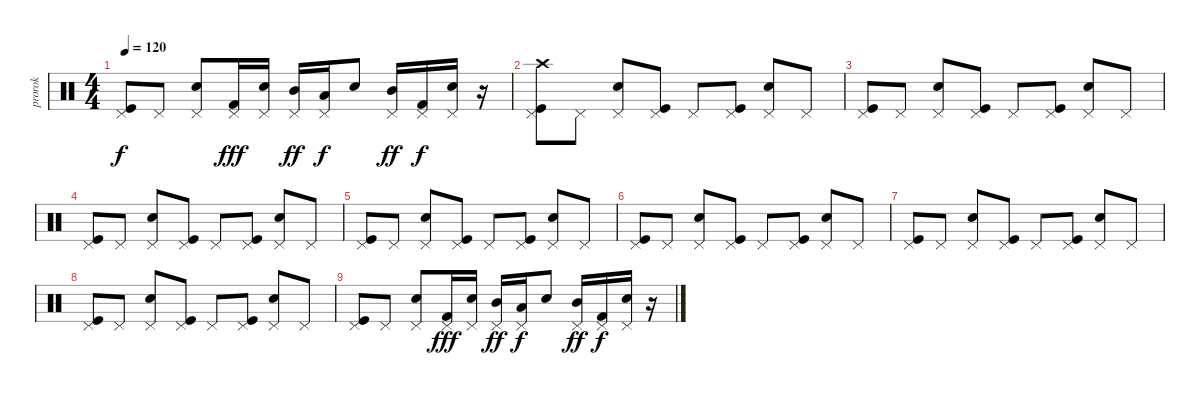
\track ("prorok" "prorok") {instrument percussion}
\staff {score}
\articulation defaults
\ts (4 4)
\tempo 120
\clef neutral
\ks c
("Kick (hit)" "Pedal Hi-Hat (hit)").8{dy f} "Pedal Hi-Hat (hit)".8 ("Electric Snare (hit)" "Pedal Hi-Hat (hit)").8 ("Kick (hit) 2" "Pedal Hi-Hat (hit)").16{dy fff} ("Electric Snare (hit)" "Pedal Hi-Hat (hit)").16 ("Mid Tom (hit)" "Pedal Hi-Hat (hit)").16{dy ff} ("Low Tom (hit)" "Pedal Hi-Hat (hit)").16{dy f} "Electric Snare (hit)".8 ("Mid Tom (hit)" "Pedal Hi-Hat (hit)").16{dy ff} ("Kick (hit) 2" "Pedal Hi-Hat (hit)").16{dy f} ("Electric Snare (hit)" "Pedal Hi-Hat (hit)").16 r.16 |
("Kick (hit)" "Pedal Hi-Hat (hit)" "Crash high (hit)").8 "Pedal Hi-Hat (hit)".8 ("Electric Snare (hit)" "Pedal Hi-Hat (hit)").8 ("Kick (hit)" "Pedal Hi-Hat (hit)").8 "Pedal Hi-Hat (hit)".8 ("Kick (hit)" "Pedal Hi-Hat (hit)").8 ("Electric Snare (hit)" "Pedal Hi-Hat (hit)").8 "Pedal Hi-Hat (hit)".8 |
("Kick (hit)" "Pedal Hi-Hat (hit)").8 "Pedal Hi-Hat (hit)".8 ("Electric Snare (hit)" "Pedal Hi-Hat (hit)").8 ("Kick (hit)" "Pedal Hi-Hat (hit)").8 "Pedal Hi-Hat (hit)".8 ("Kick (hit)" "Pedal Hi-Hat (hit)").8 ("Electric Snare (hit)" "Pedal Hi-Hat (hit)").8 "Pedal Hi-Hat (hit)".8 |
("Kick (hit)" "Pedal Hi-Hat (hit)").8 "Pedal Hi-Hat (hit)".8 ("Electric Snare (hit)" "Pedal Hi-Hat (hit)").8 ("Kick (hit)" "Pedal Hi-Hat (hit)").8 "Pedal Hi-Hat (hit)".8 ("Kick (hit)" "Pedal Hi-Hat (hit)").8 ("Electric Snare (hit)" "Pedal Hi-Hat (hit)").8 "Pedal Hi-Hat (hit)".8 |
("Kick (hit)" "Pedal Hi-Hat (hit)").8 "Pedal Hi-Hat (hit)".8 ("Electric Snare (hit)" "Pedal Hi-Hat (hit)").8 ("Kick (hit)" "Pedal Hi-Hat (hit)").8 "Pedal Hi-Hat (hit)".8 ("Kick (hit)" "Pedal Hi-Hat (hit)").8 ("Electric Snare (hit)" "Pedal Hi-Hat (hit)").8 "Pedal Hi-Hat (hit)".8 |
("Kick (hit)" "Pedal Hi-Hat (hit)").8 "Pedal Hi-Hat (hit)".8 ("Electric Snare (hit)" "Pedal Hi-Hat (hit)").8 ("Kick (hit)" "Pedal Hi-Hat (hit)").8 "Pedal Hi-Hat (hit)".8 ("Kick (hit)" "Pedal Hi-Hat (hit)").8 ("Electric Snare (hit)" "Pedal Hi-Hat (hit)").8 "Pedal Hi-Hat (hit)".8 |
("Kick (hit)" "Pedal Hi-Hat (hit)").8 "Pedal Hi-Hat (hit)".8 ("Electric Snare (hit)" "Pedal Hi-Hat (hit)").8 ("Kick (hit)" "Pedal Hi-Hat (hit)").8 "Pedal Hi-Hat (hit)".8 ("Kick (hit)" "Pedal Hi-Hat (hit)").8 ("Electric Snare (hit)" "Pedal Hi-Hat (hit)").8 "Pedal Hi-Hat (hit)".8 |
("Kick (hit)" "Pedal Hi-Hat (hit)").8 "Pedal Hi-Hat (hit)".8 ("Electric Snare (hit)" "Pedal Hi-Hat (hit)").8 ("Kick (hit)" "Pedal Hi-Hat (hit)").8 "Pedal Hi-Hat (hit)".8 ("Kick (hit)" "Pedal Hi-Hat (hit)").8 ("Electric Snare (hit)" "Pedal Hi-Hat (hit)").8 "Pedal Hi-Hat (hit)".8 |
("Kick (hit)" "Pedal Hi-Hat (hit)").8 "Pedal Hi-Hat (hit)".8 ("Electric Snare (hit)" "Pedal Hi-Hat (hit)").8 ("Kick (hit) 2" "Pedal Hi-Hat (hit)").16{dy fff} ("Electric Snare (hit)" "Pedal Hi-Hat (hit)").16 ("Mid Tom (hit)" "Pedal Hi-Hat (hit)").16{dy ff} ("Low Tom (hit)" "Pedal Hi-Hat (hit)").16{dy f} "Electric Snare (hit)".8 ("Mid Tom (hit)" "Pedal Hi-Hat (hit)").16{dy ff} ("Kick (hit) 2" "Pedal Hi-Hat (hit)").16{dy f} ("Electric Snare (hit)" "Pedal Hi-Hat (hit)").16 r.16
